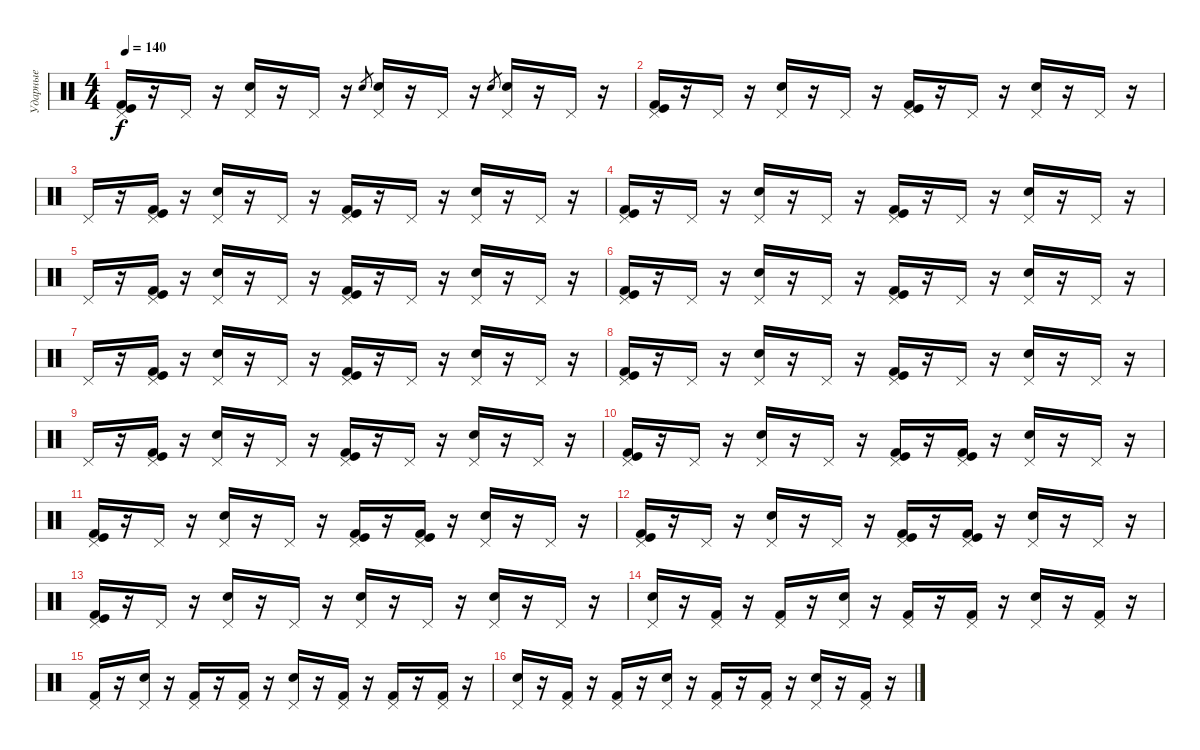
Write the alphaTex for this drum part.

\track ("Ударные" "Ударные") {instrument percussion}
\staff {score}
\articulation defaults
\ts (4 4)
\tempo 140
\clef neutral
\ks c
("Kick (hit) 2" "Kick (hit)" "Pedal Hi-Hat (hit)").16{dy f} r.16 "Pedal Hi-Hat (hit)".16 r.16 ("Snare (hit) 2" "Pedal Hi-Hat (hit)").16 r.16 "Pedal Hi-Hat (hit)".16 r.16 "Snare (hit) 2".8{gr} ("Snare (hit) 2" "Pedal Hi-Hat (hit)").16 r.16 "Pedal Hi-Hat (hit)".16 r.16 "Snare (hit) 2".8{gr} ("Snare (hit) 2" "Pedal Hi-Hat (hit)").16 r.16 "Pedal Hi-Hat (hit)".16 r.16 |
("Kick (hit) 2" "Kick (hit)" "Pedal Hi-Hat (hit)").16 r.16 "Pedal Hi-Hat (hit)".16 r.16 ("Snare (hit) 2" "Pedal Hi-Hat (hit)").16 r.16 "Pedal Hi-Hat (hit)".16 r.16 ("Kick (hit) 2" "Kick (hit)" "Pedal Hi-Hat (hit)").16 r.16 "Pedal Hi-Hat (hit)".16 r.16 ("Snare (hit) 2" "Pedal Hi-Hat (hit)").16 r.16 "Pedal Hi-Hat (hit)".16 r.16 |
"Pedal Hi-Hat (hit)".16 r.16 ("Kick (hit) 2" "Kick (hit)" "Pedal Hi-Hat (hit)").16 r.16 ("Snare (hit) 2" "Pedal Hi-Hat (hit)").16 r.16 "Pedal Hi-Hat (hit)".16 r.16 ("Kick (hit) 2" "Kick (hit)" "Pedal Hi-Hat (hit)").16 r.16 "Pedal Hi-Hat (hit)".16 r.16 ("Snare (hit) 2" "Pedal Hi-Hat (hit)").16 r.16 "Pedal Hi-Hat (hit)".16 r.16 |
("Kick (hit) 2" "Kick (hit)" "Pedal Hi-Hat (hit)").16 r.16 "Pedal Hi-Hat (hit)".16 r.16 ("Snare (hit) 2" "Pedal Hi-Hat (hit)").16 r.16 "Pedal Hi-Hat (hit)".16 r.16 ("Kick (hit) 2" "Kick (hit)" "Pedal Hi-Hat (hit)").16 r.16 "Pedal Hi-Hat (hit)".16 r.16 ("Snare (hit) 2" "Pedal Hi-Hat (hit)").16 r.16 "Pedal Hi-Hat (hit)".16 r.16 |
"Pedal Hi-Hat (hit)".16 r.16 ("Kick (hit) 2" "Kick (hit)" "Pedal Hi-Hat (hit)").16 r.16 ("Snare (hit) 2" "Pedal Hi-Hat (hit)").16 r.16 "Pedal Hi-Hat (hit)".16 r.16 ("Kick (hit) 2" "Kick (hit)" "Pedal Hi-Hat (hit)").16 r.16 "Pedal Hi-Hat (hit)".16 r.16 ("Snare (hit) 2" "Pedal Hi-Hat (hit)").16 r.16 "Pedal Hi-Hat (hit)".16 r.16 |
("Kick (hit) 2" "Kick (hit)" "Pedal Hi-Hat (hit)").16 r.16 "Pedal Hi-Hat (hit)".16 r.16 ("Snare (hit) 2" "Pedal Hi-Hat (hit)").16 r.16 "Pedal Hi-Hat (hit)".16 r.16 ("Kick (hit) 2" "Kick (hit)" "Pedal Hi-Hat (hit)").16 r.16 "Pedal Hi-Hat (hit)".16 r.16 ("Snare (hit) 2" "Pedal Hi-Hat (hit)").16 r.16 "Pedal Hi-Hat (hit)".16 r.16 |
"Pedal Hi-Hat (hit)".16 r.16 ("Kick (hit) 2" "Kick (hit)" "Pedal Hi-Hat (hit)").16 r.16 ("Snare (hit) 2" "Pedal Hi-Hat (hit)").16 r.16 "Pedal Hi-Hat (hit)".16 r.16 ("Kick (hit) 2" "Kick (hit)" "Pedal Hi-Hat (hit)").16 r.16 "Pedal Hi-Hat (hit)".16 r.16 ("Snare (hit) 2" "Pedal Hi-Hat (hit)").16 r.16 "Pedal Hi-Hat (hit)".16 r.16 |
("Kick (hit) 2" "Kick (hit)" "Pedal Hi-Hat (hit)").16 r.16 "Pedal Hi-Hat (hit)".16 r.16 ("Snare (hit) 2" "Pedal Hi-Hat (hit)").16 r.16 "Pedal Hi-Hat (hit)".16 r.16 ("Kick (hit) 2" "Kick (hit)" "Pedal Hi-Hat (hit)").16 r.16 "Pedal Hi-Hat (hit)".16 r.16 ("Snare (hit) 2" "Pedal Hi-Hat (hit)").16 r.16 "Pedal Hi-Hat (hit)".16 r.16 |
"Pedal Hi-Hat (hit)".16 r.16 ("Kick (hit) 2" "Kick (hit)" "Pedal Hi-Hat (hit)").16 r.16 ("Snare (hit) 2" "Pedal Hi-Hat (hit)").16 r.16 "Pedal Hi-Hat (hit)".16 r.16 ("Kick (hit) 2" "Kick (hit)" "Pedal Hi-Hat (hit)").16 r.16 "Pedal Hi-Hat (hit)".16 r.16 ("Snare (hit) 2" "Pedal Hi-Hat (hit)").16 r.16 "Pedal Hi-Hat (hit)".16 r.16 |
("Kick (hit) 2" "Kick (hit)" "Pedal Hi-Hat (hit)").16 r.16 "Pedal Hi-Hat (hit)".16 r.16 ("Electric Snare (hit)" "Pedal Hi-Hat (hit)").16 r.16 "Pedal Hi-Hat (hit)".16 r.16 ("Kick (hit) 2" "Kick (hit)" "Pedal Hi-Hat (hit)").16 r.16 ("Kick (hit) 2" "Kick (hit)" "Pedal Hi-Hat (hit)").16 r.16 ("Electric Snare (hit)" "Pedal Hi-Hat (hit)").16 r.16 "Pedal Hi-Hat (hit)".16 r.16 |
("Kick (hit) 2" "Kick (hit)" "Pedal Hi-Hat (hit)").16 r.16 "Pedal Hi-Hat (hit)".16 r.16 ("Electric Snare (hit)" "Pedal Hi-Hat (hit)").16 r.16 "Pedal Hi-Hat (hit)".16 r.16 ("Kick (hit) 2" "Kick (hit)" "Pedal Hi-Hat (hit)").16 r.16 ("Kick (hit) 2" "Kick (hit)" "Pedal Hi-Hat (hit)").16 r.16 ("Electric Snare (hit)" "Pedal Hi-Hat (hit)").16 r.16 "Pedal Hi-Hat (hit)".16 r.16 |
("Kick (hit) 2" "Kick (hit)" "Pedal Hi-Hat (hit)").16 r.16 "Pedal Hi-Hat (hit)".16 r.16 ("Electric Snare (hit)" "Pedal Hi-Hat (hit)").16 r.16 "Pedal Hi-Hat (hit)".16 r.16 ("Kick (hit) 2" "Kick (hit)" "Pedal Hi-Hat (hit)").16 r.16 ("Kick (hit) 2" "Kick (hit)" "Pedal Hi-Hat (hit)").16 r.16 ("Electric Snare (hit)" "Pedal Hi-Hat (hit)").16 r.16 "Pedal Hi-Hat (hit)".16 r.16 |
("Kick (hit) 2" "Kick (hit)" "Pedal Hi-Hat (hit)").16 r.16 "Pedal Hi-Hat (hit)".16 r.16 ("Electric Snare (hit)" "Pedal Hi-Hat (hit)").16 r.16 "Pedal Hi-Hat (hit)".16 r.16 ("Snare (hit) 2" "Pedal Hi-Hat (hit)").16 r.16 "Pedal Hi-Hat (hit)".16 r.16 ("Snare (hit) 2" "Pedal Hi-Hat (hit)").16 r.16 "Pedal Hi-Hat (hit)".16 r.16 |
("Snare (hit) 2" "Pedal Hi-Hat (hit)").16 r.16 ("Kick (hit) 2" "Pedal Hi-Hat (hit)").16 r.16 ("Kick (hit) 2" "Pedal Hi-Hat (hit)").16 r.16 ("Snare (hit) 2" "Pedal Hi-Hat (hit)").16 r.16 ("Kick (hit) 2" "Pedal Hi-Hat (hit)").16 r.16 ("Kick (hit) 2" "Pedal Hi-Hat (hit)").16 r.16 ("Snare (hit) 2" "Pedal Hi-Hat (hit)").16 r.16 ("Kick (hit) 2" "Pedal Hi-Hat (hit)").16 r.16 |
("Kick (hit) 2" "Pedal Hi-Hat (hit)").16 r.16 ("Snare (hit) 2" "Pedal Hi-Hat (hit)").16 r.16 ("Kick (hit) 2" "Pedal Hi-Hat (hit)").16 r.16 ("Kick (hit) 2" "Pedal Hi-Hat (hit)").16 r.16 ("Snare (hit) 2" "Pedal Hi-Hat (hit)").16 r.16 ("Kick (hit) 2" "Pedal Hi-Hat (hit)").16 r.16 ("Kick (hit) 2" "Pedal Hi-Hat (hit)").16 r.16 ("Kick (hit) 2" "Pedal Hi-Hat (hit)").16 r.16 |
("Snare (hit) 2" "Pedal Hi-Hat (hit)").16 r.16 ("Kick (hit) 2" "Pedal Hi-Hat (hit)").16 r.16 ("Kick (hit) 2" "Pedal Hi-Hat (hit)").16 r.16 ("Snare (hit) 2" "Pedal Hi-Hat (hit)").16 r.16 ("Kick (hit) 2" "Pedal Hi-Hat (hit)").16 r.16 ("Kick (hit) 2" "Pedal Hi-Hat (hit)").16 r.16 ("Snare (hit) 2" "Pedal Hi-Hat (hit)").16 r.16 ("Kick (hit) 2" "Pedal Hi-Hat (hit)").16 r.16
